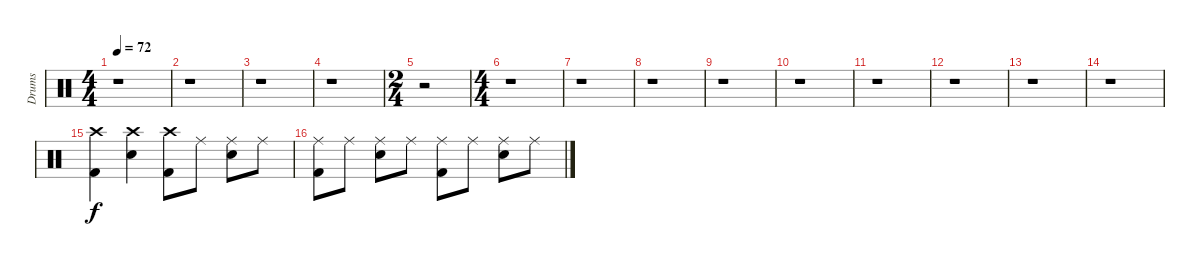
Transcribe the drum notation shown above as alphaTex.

\track ("Drums" "Drums") {instrument percussion}
\staff {score}
\articulation defaults
\ts (4 4)
\tempo 72
\clef neutral
\ks c
r.1{dy f} |
r.1 |
r.1 |
r.1 |
\ts (2 4)
r.2 |
\ts (4 4)
r.1 |
r.1 |
r.1 |
r.1 |
r.1 |
r.1 |
r.1 |
r.1 |
r.1 |
("Crash high (hit)" "Kick (hit) 2").4 ("Crash high (hit)" "Snare (hit) 2").4 ("Crash high (hit)" "Kick (hit) 2").8 "Ride (middle)".8 ("Ride (middle)" "Snare (hit) 2").8 "Ride (middle)".8 |
("Ride (middle)" "Kick (hit) 2").8 "Ride (middle)".8 ("Ride (middle)" "Snare (hit) 2").8 "Ride (middle)".8 ("Ride (middle)" "Kick (hit) 2").8 "Ride (middle)".8 ("Ride (middle)" "Snare (hit) 2").8 "Ride (middle)".8
